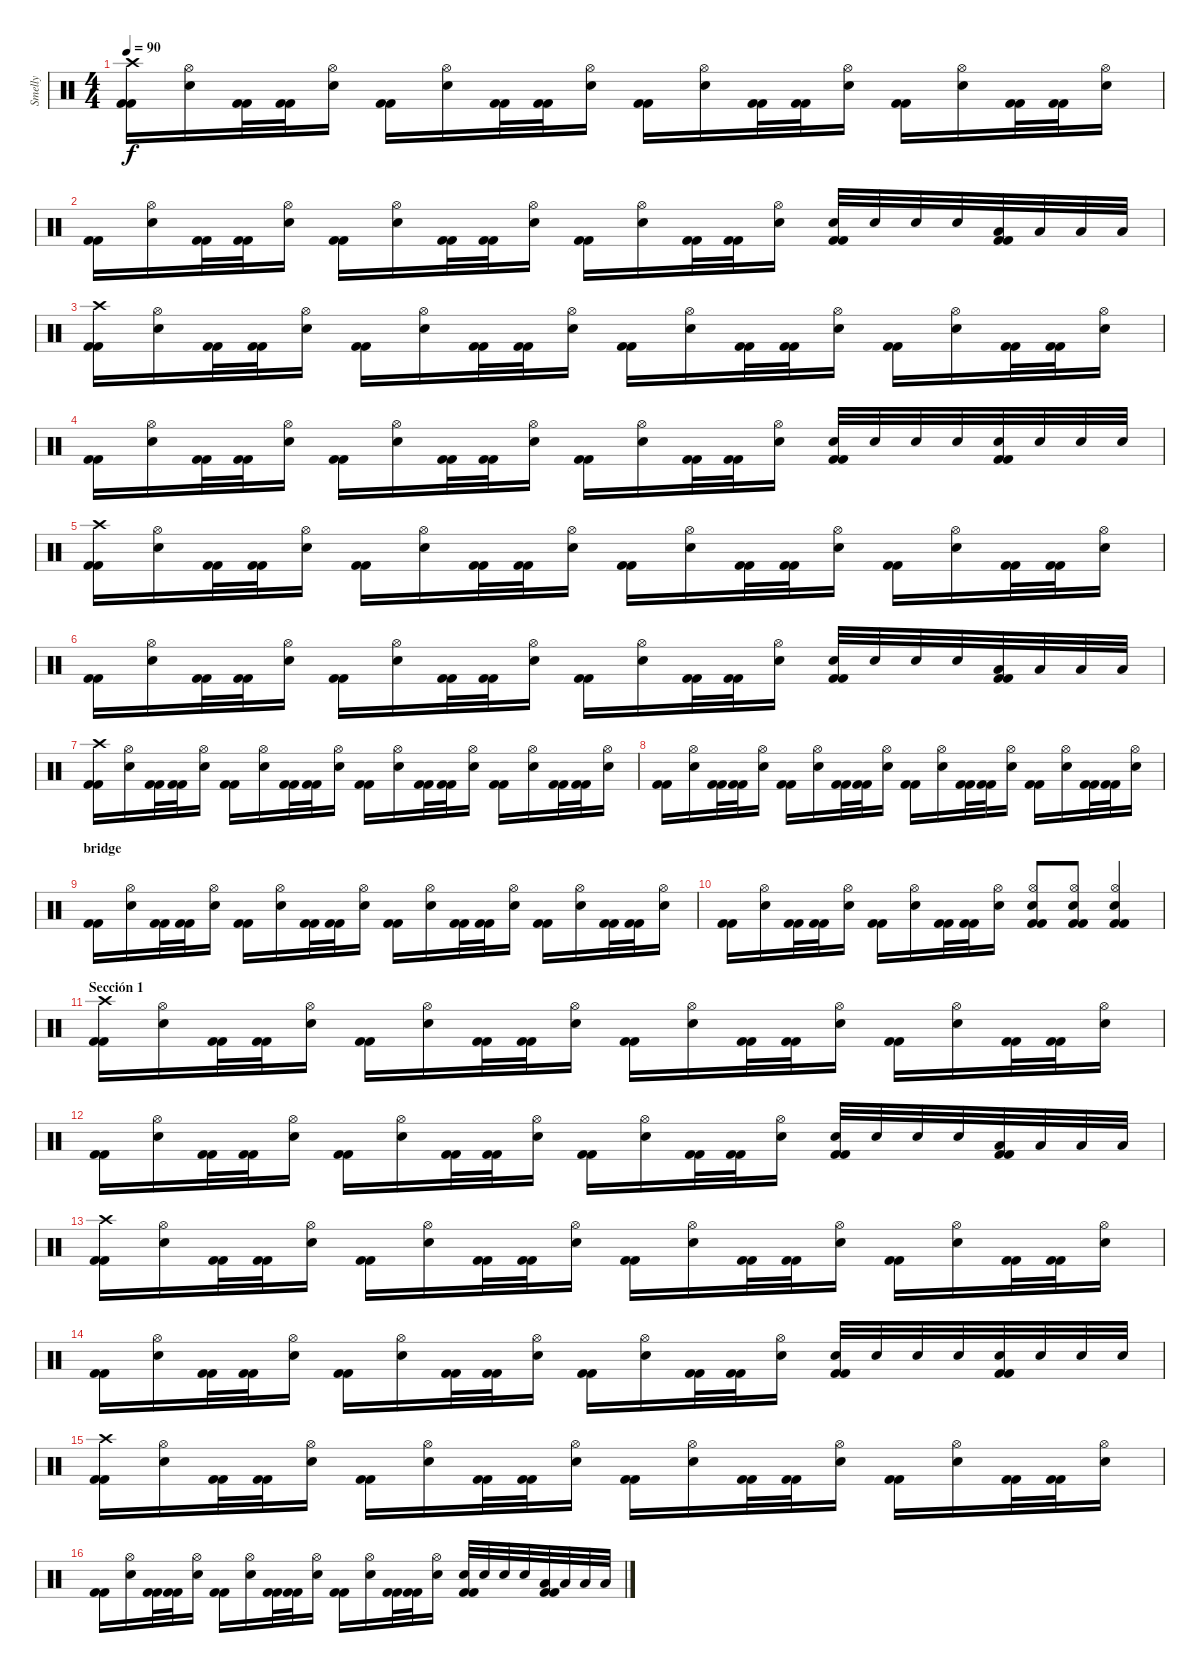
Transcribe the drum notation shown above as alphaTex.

\track ("Smelly" "Smelly") {instrument percussion}
\staff {score}
\articulation defaults
\ts (4 4)
\tempo 90
\clef neutral
\ks c
("Crash high (hit)" "Kick (hit) 2" "Kick (hit) 2").16{dy f} ("Hi-Hat (open)" "Electric Snare (hit)").16 ("Kick (hit) 2" "Kick (hit) 2").32 ("Kick (hit) 2" "Kick (hit) 2").32 ("Hi-Hat (open)" "Electric Snare (hit)").16 ("Kick (hit) 2" "Kick (hit) 2").16 ("Hi-Hat (open)" "Electric Snare (hit)").16 ("Kick (hit) 2" "Kick (hit) 2").32 ("Kick (hit) 2" "Kick (hit) 2").32 ("Hi-Hat (open)" "Electric Snare (hit)").16 ("Kick (hit) 2" "Kick (hit) 2").16 ("Hi-Hat (open)" "Electric Snare (hit)").16 ("Kick (hit) 2" "Kick (hit) 2").32 ("Kick (hit) 2" "Kick (hit) 2").32 ("Hi-Hat (open)" "Electric Snare (hit)").16 ("Kick (hit) 2" "Kick (hit) 2").16 ("Hi-Hat (open)" "Electric Snare (hit)").16 ("Kick (hit) 2" "Kick (hit) 2").32 ("Kick (hit) 2" "Kick (hit) 2").32 ("Hi-Hat (open)" "Electric Snare (hit)").16 |
("Kick (hit) 2" "Kick (hit) 2").16 ("Hi-Hat (open)" "Electric Snare (hit)").16 ("Kick (hit) 2" "Kick (hit) 2").32 ("Kick (hit) 2" "Kick (hit) 2").32 ("Hi-Hat (open)" "Electric Snare (hit)").16 ("Kick (hit) 2" "Kick (hit) 2").16 ("Hi-Hat (open)" "Electric Snare (hit)").16 ("Kick (hit) 2" "Kick (hit) 2").32 ("Kick (hit) 2" "Kick (hit) 2").32 ("Hi-Hat (open)" "Electric Snare (hit)").16 ("Kick (hit) 2" "Kick (hit) 2").16 ("Hi-Hat (open)" "Electric Snare (hit)").16 ("Kick (hit) 2" "Kick (hit) 2").32 ("Kick (hit) 2" "Kick (hit) 2").32 ("Hi-Hat (open)" "Electric Snare (hit)").16 ("Electric Snare (hit)" "Kick (hit) 2" "Kick (hit) 2").32 "Electric Snare (hit)".32 "Electric Snare (hit)".32 "Electric Snare (hit)".32 ("Low Floor Tom (hit)" "Kick (hit) 2" "Kick (hit) 2").32 "Low Floor Tom (hit)".32 "Low Floor Tom (hit)".32 "Low Floor Tom (hit)".32 |
("Crash high (hit)" "Kick (hit) 2" "Kick (hit) 2").16 ("Hi-Hat (open)" "Electric Snare (hit)").16 ("Kick (hit) 2" "Kick (hit) 2").32 ("Kick (hit) 2" "Kick (hit) 2").32 ("Hi-Hat (open)" "Electric Snare (hit)").16 ("Kick (hit) 2" "Kick (hit) 2").16 ("Hi-Hat (open)" "Electric Snare (hit)").16 ("Kick (hit) 2" "Kick (hit) 2").32 ("Kick (hit) 2" "Kick (hit) 2").32 ("Hi-Hat (open)" "Electric Snare (hit)").16 ("Kick (hit) 2" "Kick (hit) 2").16 ("Hi-Hat (open)" "Electric Snare (hit)").16 ("Kick (hit) 2" "Kick (hit) 2").32 ("Kick (hit) 2" "Kick (hit) 2").32 ("Hi-Hat (open)" "Electric Snare (hit)").16 ("Kick (hit) 2" "Kick (hit) 2").16 ("Hi-Hat (open)" "Electric Snare (hit)").16 ("Kick (hit) 2" "Kick (hit) 2").32 ("Kick (hit) 2" "Kick (hit) 2").32 ("Hi-Hat (open)" "Electric Snare (hit)").16 |
("Kick (hit) 2" "Kick (hit) 2").16 ("Hi-Hat (open)" "Electric Snare (hit)").16 ("Kick (hit) 2" "Kick (hit) 2").32 ("Kick (hit) 2" "Kick (hit) 2").32 ("Hi-Hat (open)" "Electric Snare (hit)").16 ("Kick (hit) 2" "Kick (hit) 2").16 ("Hi-Hat (open)" "Electric Snare (hit)").16 ("Kick (hit) 2" "Kick (hit) 2").32 ("Kick (hit) 2" "Kick (hit) 2").32 ("Hi-Hat (open)" "Electric Snare (hit)").16 ("Kick (hit) 2" "Kick (hit) 2").16 ("Hi-Hat (open)" "Electric Snare (hit)").16 ("Kick (hit) 2" "Kick (hit) 2").32 ("Kick (hit) 2" "Kick (hit) 2").32 ("Hi-Hat (open)" "Electric Snare (hit)").16 ("Electric Snare (hit)" "Kick (hit) 2" "Kick (hit) 2").32 "Electric Snare (hit)".32 "Electric Snare (hit)".32 "Electric Snare (hit)".32 ("Electric Snare (hit)" "Kick (hit) 2" "Kick (hit) 2").32 "Electric Snare (hit)".32 "Electric Snare (hit)".32 "Electric Snare (hit)".32 |
("Crash high (hit)" "Kick (hit) 2" "Kick (hit) 2").16 ("Hi-Hat (open)" "Electric Snare (hit)").16 ("Kick (hit) 2" "Kick (hit) 2").32 ("Kick (hit) 2" "Kick (hit) 2").32 ("Hi-Hat (open)" "Electric Snare (hit)").16 ("Kick (hit) 2" "Kick (hit) 2").16 ("Hi-Hat (open)" "Electric Snare (hit)").16 ("Kick (hit) 2" "Kick (hit) 2").32 ("Kick (hit) 2" "Kick (hit) 2").32 ("Hi-Hat (open)" "Electric Snare (hit)").16 ("Kick (hit) 2" "Kick (hit) 2").16 ("Hi-Hat (open)" "Electric Snare (hit)").16 ("Kick (hit) 2" "Kick (hit) 2").32 ("Kick (hit) 2" "Kick (hit) 2").32 ("Hi-Hat (open)" "Electric Snare (hit)").16 ("Kick (hit) 2" "Kick (hit) 2").16 ("Hi-Hat (open)" "Electric Snare (hit)").16 ("Kick (hit) 2" "Kick (hit) 2").32 ("Kick (hit) 2" "Kick (hit) 2").32 ("Hi-Hat (open)" "Electric Snare (hit)").16 |
("Kick (hit) 2" "Kick (hit) 2").16 ("Hi-Hat (open)" "Electric Snare (hit)").16 ("Kick (hit) 2" "Kick (hit) 2").32 ("Kick (hit) 2" "Kick (hit) 2").32 ("Hi-Hat (open)" "Electric Snare (hit)").16 ("Kick (hit) 2" "Kick (hit) 2").16 ("Hi-Hat (open)" "Electric Snare (hit)").16 ("Kick (hit) 2" "Kick (hit) 2").32 ("Kick (hit) 2" "Kick (hit) 2").32 ("Hi-Hat (open)" "Electric Snare (hit)").16 ("Kick (hit) 2" "Kick (hit) 2").16 ("Hi-Hat (open)" "Electric Snare (hit)").16 ("Kick (hit) 2" "Kick (hit) 2").32 ("Kick (hit) 2" "Kick (hit) 2").32 ("Hi-Hat (open)" "Electric Snare (hit)").16 ("Electric Snare (hit)" "Kick (hit) 2" "Kick (hit) 2").32 "Electric Snare (hit)".32 "Electric Snare (hit)".32 "Electric Snare (hit)".32 ("Low Floor Tom (hit)" "Kick (hit) 2" "Kick (hit) 2").32 "Low Floor Tom (hit)".32 "Low Floor Tom (hit)".32 "Low Floor Tom (hit)".32 |
("Crash high (hit)" "Kick (hit) 2" "Kick (hit) 2").16 ("Hi-Hat (open)" "Electric Snare (hit)").16 ("Kick (hit) 2" "Kick (hit) 2").32 ("Kick (hit) 2" "Kick (hit) 2").32 ("Hi-Hat (open)" "Electric Snare (hit)").16 ("Kick (hit) 2" "Kick (hit) 2").16 ("Hi-Hat (open)" "Electric Snare (hit)").16 ("Kick (hit) 2" "Kick (hit) 2").32 ("Kick (hit) 2" "Kick (hit) 2").32 ("Hi-Hat (open)" "Electric Snare (hit)").16 ("Kick (hit) 2" "Kick (hit) 2").16 ("Hi-Hat (open)" "Electric Snare (hit)").16 ("Kick (hit) 2" "Kick (hit) 2").32 ("Kick (hit) 2" "Kick (hit) 2").32 ("Hi-Hat (open)" "Electric Snare (hit)").16 ("Kick (hit) 2" "Kick (hit) 2").16 ("Hi-Hat (open)" "Electric Snare (hit)").16 ("Kick (hit) 2" "Kick (hit) 2").32 ("Kick (hit) 2" "Kick (hit) 2").32 ("Hi-Hat (open)" "Electric Snare (hit)").16 |
("Kick (hit) 2" "Kick (hit) 2").16 ("Hi-Hat (open)" "Electric Snare (hit)").16 ("Kick (hit) 2" "Kick (hit) 2").32 ("Kick (hit) 2" "Kick (hit) 2").32 ("Hi-Hat (open)" "Electric Snare (hit)").16 ("Kick (hit) 2" "Kick (hit) 2").16 ("Hi-Hat (open)" "Electric Snare (hit)").16 ("Kick (hit) 2" "Kick (hit) 2").32 ("Kick (hit) 2" "Kick (hit) 2").32 ("Hi-Hat (open)" "Electric Snare (hit)").16 ("Kick (hit) 2" "Kick (hit) 2").16 ("Hi-Hat (open)" "Electric Snare (hit)").16 ("Kick (hit) 2" "Kick (hit) 2").32 ("Kick (hit) 2" "Kick (hit) 2").32 ("Hi-Hat (open)" "Electric Snare (hit)").16 ("Kick (hit) 2" "Kick (hit) 2").16 ("Hi-Hat (open)" "Electric Snare (hit)").16 ("Kick (hit) 2" "Kick (hit) 2").32 ("Kick (hit) 2" "Kick (hit) 2").32 ("Hi-Hat (open)" "Electric Snare (hit)").16 |
\section ("" "bridge")
("Kick (hit) 2" "Kick (hit) 2").16 ("Hi-Hat (open)" "Electric Snare (hit)").16 ("Kick (hit) 2" "Kick (hit) 2").32 ("Kick (hit) 2" "Kick (hit) 2").32 ("Hi-Hat (open)" "Electric Snare (hit)").16 ("Kick (hit) 2" "Kick (hit) 2").16 ("Hi-Hat (open)" "Electric Snare (hit)").16 ("Kick (hit) 2" "Kick (hit) 2").32 ("Kick (hit) 2" "Kick (hit) 2").32 ("Hi-Hat (open)" "Electric Snare (hit)").16 ("Kick (hit) 2" "Kick (hit) 2").16 ("Hi-Hat (open)" "Electric Snare (hit)").16 ("Kick (hit) 2" "Kick (hit) 2").32 ("Kick (hit) 2" "Kick (hit) 2").32 ("Hi-Hat (open)" "Electric Snare (hit)").16 ("Kick (hit) 2" "Kick (hit) 2").16 ("Hi-Hat (open)" "Electric Snare (hit)").16 ("Kick (hit) 2" "Kick (hit) 2").32 ("Kick (hit) 2" "Kick (hit) 2").32 ("Hi-Hat (open)" "Electric Snare (hit)").16 |
("Kick (hit) 2" "Kick (hit) 2").16 ("Hi-Hat (open)" "Electric Snare (hit)").16 ("Kick (hit) 2" "Kick (hit) 2").32 ("Kick (hit) 2" "Kick (hit) 2").32 ("Hi-Hat (open)" "Electric Snare (hit)").16 ("Kick (hit) 2" "Kick (hit) 2").16 ("Hi-Hat (open)" "Electric Snare (hit)").16 ("Kick (hit) 2" "Kick (hit) 2").32 ("Kick (hit) 2" "Kick (hit) 2").32 ("Hi-Hat (open)" "Electric Snare (hit)").16 ("Hi-Hat (open)" "Electric Snare (hit)" "Kick (hit) 2" "Kick (hit) 2").8 ("Hi-Hat (open)" "Electric Snare (hit)" "Kick (hit) 2" "Kick (hit) 2").8 ("Hi-Hat (open)" "Electric Snare (hit)" "Kick (hit) 2" "Kick (hit) 2").4 |
\section ("" "Sección 1")
("Crash high (hit)" "Kick (hit) 2" "Kick (hit) 2").16 ("Hi-Hat (open)" "Electric Snare (hit)").16 ("Kick (hit) 2" "Kick (hit) 2").32 ("Kick (hit) 2" "Kick (hit) 2").32 ("Hi-Hat (open)" "Electric Snare (hit)").16 ("Kick (hit) 2" "Kick (hit) 2").16 ("Hi-Hat (open)" "Electric Snare (hit)").16 ("Kick (hit) 2" "Kick (hit) 2").32 ("Kick (hit) 2" "Kick (hit) 2").32 ("Hi-Hat (open)" "Electric Snare (hit)").16 ("Kick (hit) 2" "Kick (hit) 2").16 ("Hi-Hat (open)" "Electric Snare (hit)").16 ("Kick (hit) 2" "Kick (hit) 2").32 ("Kick (hit) 2" "Kick (hit) 2").32 ("Hi-Hat (open)" "Electric Snare (hit)").16 ("Kick (hit) 2" "Kick (hit) 2").16 ("Hi-Hat (open)" "Electric Snare (hit)").16 ("Kick (hit) 2" "Kick (hit) 2").32 ("Kick (hit) 2" "Kick (hit) 2").32 ("Hi-Hat (open)" "Electric Snare (hit)").16 |
("Kick (hit) 2" "Kick (hit) 2").16 ("Hi-Hat (open)" "Electric Snare (hit)").16 ("Kick (hit) 2" "Kick (hit) 2").32 ("Kick (hit) 2" "Kick (hit) 2").32 ("Hi-Hat (open)" "Electric Snare (hit)").16 ("Kick (hit) 2" "Kick (hit) 2").16 ("Hi-Hat (open)" "Electric Snare (hit)").16 ("Kick (hit) 2" "Kick (hit) 2").32 ("Kick (hit) 2" "Kick (hit) 2").32 ("Hi-Hat (open)" "Electric Snare (hit)").16 ("Kick (hit) 2" "Kick (hit) 2").16 ("Hi-Hat (open)" "Electric Snare (hit)").16 ("Kick (hit) 2" "Kick (hit) 2").32 ("Kick (hit) 2" "Kick (hit) 2").32 ("Hi-Hat (open)" "Electric Snare (hit)").16 ("Electric Snare (hit)" "Kick (hit) 2" "Kick (hit) 2").32 "Electric Snare (hit)".32 "Electric Snare (hit)".32 "Electric Snare (hit)".32 ("Low Floor Tom (hit)" "Kick (hit) 2" "Kick (hit) 2").32 "Low Floor Tom (hit)".32 "Low Floor Tom (hit)".32 "Low Floor Tom (hit)".32 |
("Crash high (hit)" "Kick (hit) 2" "Kick (hit) 2").16 ("Hi-Hat (open)" "Electric Snare (hit)").16 ("Kick (hit) 2" "Kick (hit) 2").32 ("Kick (hit) 2" "Kick (hit) 2").32 ("Hi-Hat (open)" "Electric Snare (hit)").16 ("Kick (hit) 2" "Kick (hit) 2").16 ("Hi-Hat (open)" "Electric Snare (hit)").16 ("Kick (hit) 2" "Kick (hit) 2").32 ("Kick (hit) 2" "Kick (hit) 2").32 ("Hi-Hat (open)" "Electric Snare (hit)").16 ("Kick (hit) 2" "Kick (hit) 2").16 ("Hi-Hat (open)" "Electric Snare (hit)").16 ("Kick (hit) 2" "Kick (hit) 2").32 ("Kick (hit) 2" "Kick (hit) 2").32 ("Hi-Hat (open)" "Electric Snare (hit)").16 ("Kick (hit) 2" "Kick (hit) 2").16 ("Hi-Hat (open)" "Electric Snare (hit)").16 ("Kick (hit) 2" "Kick (hit) 2").32 ("Kick (hit) 2" "Kick (hit) 2").32 ("Hi-Hat (open)" "Electric Snare (hit)").16 |
("Kick (hit) 2" "Kick (hit) 2").16 ("Hi-Hat (open)" "Electric Snare (hit)").16 ("Kick (hit) 2" "Kick (hit) 2").32 ("Kick (hit) 2" "Kick (hit) 2").32 ("Hi-Hat (open)" "Electric Snare (hit)").16 ("Kick (hit) 2" "Kick (hit) 2").16 ("Hi-Hat (open)" "Electric Snare (hit)").16 ("Kick (hit) 2" "Kick (hit) 2").32 ("Kick (hit) 2" "Kick (hit) 2").32 ("Hi-Hat (open)" "Electric Snare (hit)").16 ("Kick (hit) 2" "Kick (hit) 2").16 ("Hi-Hat (open)" "Electric Snare (hit)").16 ("Kick (hit) 2" "Kick (hit) 2").32 ("Kick (hit) 2" "Kick (hit) 2").32 ("Hi-Hat (open)" "Electric Snare (hit)").16 ("Electric Snare (hit)" "Kick (hit) 2" "Kick (hit) 2").32 "Electric Snare (hit)".32 "Electric Snare (hit)".32 "Electric Snare (hit)".32 ("Electric Snare (hit)" "Kick (hit) 2" "Kick (hit) 2").32 "Electric Snare (hit)".32 "Electric Snare (hit)".32 "Electric Snare (hit)".32 |
("Crash high (hit)" "Kick (hit) 2" "Kick (hit) 2").16 ("Hi-Hat (open)" "Electric Snare (hit)").16 ("Kick (hit) 2" "Kick (hit) 2").32 ("Kick (hit) 2" "Kick (hit) 2").32 ("Hi-Hat (open)" "Electric Snare (hit)").16 ("Kick (hit) 2" "Kick (hit) 2").16 ("Hi-Hat (open)" "Electric Snare (hit)").16 ("Kick (hit) 2" "Kick (hit) 2").32 ("Kick (hit) 2" "Kick (hit) 2").32 ("Hi-Hat (open)" "Electric Snare (hit)").16 ("Kick (hit) 2" "Kick (hit) 2").16 ("Hi-Hat (open)" "Electric Snare (hit)").16 ("Kick (hit) 2" "Kick (hit) 2").32 ("Kick (hit) 2" "Kick (hit) 2").32 ("Hi-Hat (open)" "Electric Snare (hit)").16 ("Kick (hit) 2" "Kick (hit) 2").16 ("Hi-Hat (open)" "Electric Snare (hit)").16 ("Kick (hit) 2" "Kick (hit) 2").32 ("Kick (hit) 2" "Kick (hit) 2").32 ("Hi-Hat (open)" "Electric Snare (hit)").16 |
("Kick (hit) 2" "Kick (hit) 2").16 ("Hi-Hat (open)" "Electric Snare (hit)").16 ("Kick (hit) 2" "Kick (hit) 2").32 ("Kick (hit) 2" "Kick (hit) 2").32 ("Hi-Hat (open)" "Electric Snare (hit)").16 ("Kick (hit) 2" "Kick (hit) 2").16 ("Hi-Hat (open)" "Electric Snare (hit)").16 ("Kick (hit) 2" "Kick (hit) 2").32 ("Kick (hit) 2" "Kick (hit) 2").32 ("Hi-Hat (open)" "Electric Snare (hit)").16 ("Kick (hit) 2" "Kick (hit) 2").16 ("Hi-Hat (open)" "Electric Snare (hit)").16 ("Kick (hit) 2" "Kick (hit) 2").32 ("Kick (hit) 2" "Kick (hit) 2").32 ("Hi-Hat (open)" "Electric Snare (hit)").16 ("Electric Snare (hit)" "Kick (hit) 2" "Kick (hit) 2").32 "Electric Snare (hit)".32 "Electric Snare (hit)".32 "Electric Snare (hit)".32 ("Low Floor Tom (hit)" "Kick (hit) 2" "Kick (hit) 2").32 "Low Floor Tom (hit)".32 "Low Floor Tom (hit)".32 "Low Floor Tom (hit)".32
